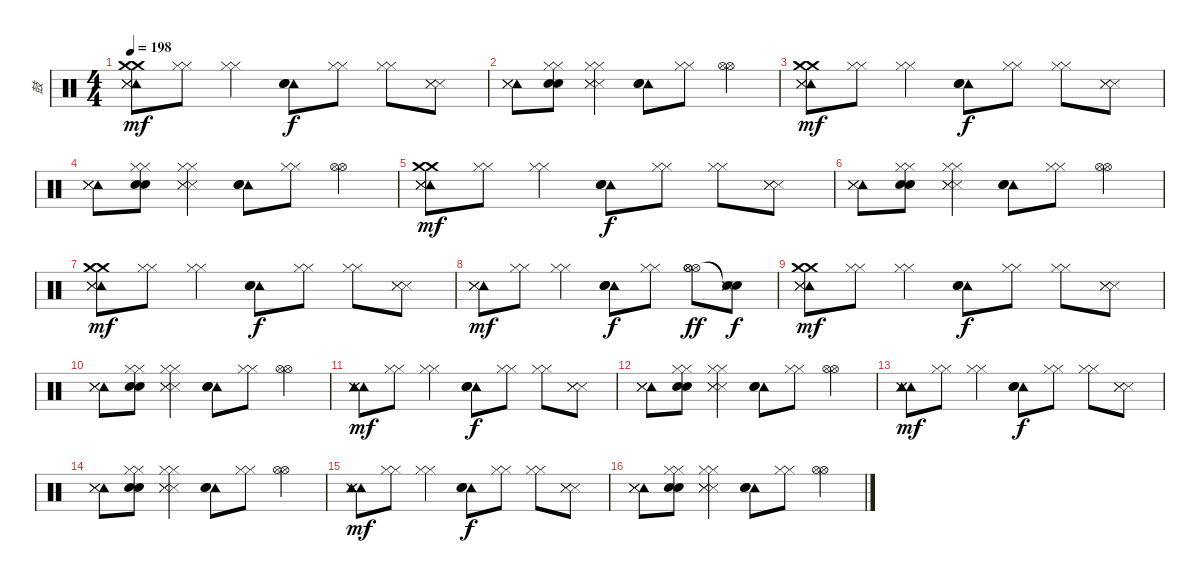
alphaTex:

\track ("鼓" "鼓") {instrument percussion}
\staff {score}
\articulation defaults
\ts (4 4)
\tempo 198
\clef neutral
\ks c
("Tambourine (hit)" "Crash medium (hit)" "Metronome (hit)" "Metronome (hit)" "Metronome (hit)" "Crash medium (hit)").8{dy mf} ("Hi-Hat (closed)" "Hi-Hat (closed)").8 ("Hi-Hat (closed)" "Hi-Hat (closed)").4 ("Tambourine (hit)" "Metronome (bell)" "Metronome (bell)").8{dy f} ("Hi-Hat (closed)" "Hi-Hat (closed)").8 ("Hi-Hat (closed)" "Hi-Hat (closed)").8 ("Metronome (hit)" "Metronome (hit)" "Metronome (hit)").8 |
("Tambourine (hit)" "Metronome (hit)" "Metronome (hit)" "Metronome (hit)").8 ("Hi-Hat (closed)" "Hi-Hat (closed)" "Metronome (bell)" "Metronome (bell)").8 ("Hi-Hat (closed)" "Hi-Hat (closed)" "Metronome (hit)" "Metronome (hit)" "Metronome (hit)").4 ("Tambourine (hit)" "Metronome (bell)" "Metronome (bell)").8 ("Hi-Hat (closed)" "Hi-Hat (closed)").8 ("Hi-Hat (open)" "Hi-Hat (open)").4 |
("Tambourine (hit)" "Crash medium (hit)" "Metronome (hit)" "Metronome (hit)" "Metronome (hit)" "Crash medium (hit)").8{dy mf} ("Hi-Hat (closed)" "Hi-Hat (closed)").8 ("Hi-Hat (closed)" "Hi-Hat (closed)").4 ("Tambourine (hit)" "Metronome (bell)" "Metronome (bell)").8{dy f} ("Hi-Hat (closed)" "Hi-Hat (closed)").8 ("Hi-Hat (closed)" "Hi-Hat (closed)").8 ("Metronome (hit)" "Metronome (hit)" "Metronome (hit)").8 |
("Tambourine (hit)" "Metronome (hit)" "Metronome (hit)" "Metronome (hit)").8 ("Hi-Hat (closed)" "Hi-Hat (closed)" "Metronome (bell)" "Metronome (bell)").8 ("Hi-Hat (closed)" "Hi-Hat (closed)" "Metronome (hit)" "Metronome (hit)" "Metronome (hit)").4 ("Tambourine (hit)" "Metronome (bell)" "Metronome (bell)").8 ("Hi-Hat (closed)" "Hi-Hat (closed)").8 ("Hi-Hat (open)" "Hi-Hat (open)").4 |
("Tambourine (hit)" "Crash medium (hit)" "Metronome (hit)" "Metronome (hit)" "Metronome (hit)" "Crash medium (hit)").8{dy mf} ("Hi-Hat (closed)" "Hi-Hat (closed)").8 ("Hi-Hat (closed)" "Hi-Hat (closed)").4 ("Tambourine (hit)" "Metronome (bell)" "Metronome (bell)").8{dy f} ("Hi-Hat (closed)" "Hi-Hat (closed)").8 ("Hi-Hat (closed)" "Hi-Hat (closed)").8 ("Metronome (hit)" "Metronome (hit)" "Metronome (hit)").8 |
("Tambourine (hit)" "Metronome (hit)" "Metronome (hit)" "Metronome (hit)").8 ("Hi-Hat (closed)" "Hi-Hat (closed)" "Metronome (bell)" "Metronome (bell)").8 ("Hi-Hat (closed)" "Hi-Hat (closed)" "Metronome (hit)" "Metronome (hit)" "Metronome (hit)").4 ("Tambourine (hit)" "Metronome (bell)" "Metronome (bell)").8 ("Hi-Hat (closed)" "Hi-Hat (closed)").8 ("Hi-Hat (open)" "Hi-Hat (open)").4 |
("Tambourine (hit)" "Crash medium (hit)" "Metronome (hit)" "Metronome (hit)" "Metronome (hit)" "Crash medium (hit)").8{dy mf} ("Hi-Hat (closed)" "Hi-Hat (closed)").8 ("Hi-Hat (closed)" "Hi-Hat (closed)").4 ("Tambourine (hit)" "Metronome (bell)" "Metronome (bell)").8{dy f} ("Hi-Hat (closed)" "Hi-Hat (closed)").8 ("Hi-Hat (closed)" "Hi-Hat (closed)").8 ("Metronome (hit)" "Metronome (hit)" "Metronome (hit)").8 |
("Tambourine (hit)" "Metronome (hit)" "Metronome (hit)" "Metronome (hit)").8{dy mf} ("Hi-Hat (closed)" "Hi-Hat (closed)").8 ("Hi-Hat (closed)" "Hi-Hat (closed)").4 ("Tambourine (hit)" "Metronome (bell)" "Metronome (bell)").8{dy f} ("Hi-Hat (closed)" "Hi-Hat (closed)").8 ("Hi-Hat (open)" "Hi-Hat (open)" "Hi-Hat (open)").8{dy ff} ("Snare (hit)"{t} "Snare (hit)"{t} "Metronome (hit)" "Metronome (hit)" "Metronome (hit)").8{dy f} |
("Tambourine (hit)" "Crash medium (hit)" "Metronome (hit)" "Metronome (hit)" "Metronome (hit)" "Crash medium (hit)").8{dy mf} ("Hi-Hat (closed)" "Hi-Hat (closed)").8 ("Hi-Hat (closed)" "Hi-Hat (closed)").4 ("Tambourine (hit)" "Metronome (bell)" "Metronome (bell)").8{dy f} ("Hi-Hat (closed)" "Hi-Hat (closed)").8 ("Hi-Hat (closed)" "Hi-Hat (closed)").8 ("Metronome (hit)" "Metronome (hit)" "Metronome (hit)").8 |
("Tambourine (hit)" "Metronome (hit)" "Metronome (hit)" "Metronome (hit)").8 ("Hi-Hat (closed)" "Hi-Hat (closed)" "Metronome (bell)" "Metronome (bell)").8 ("Hi-Hat (closed)" "Hi-Hat (closed)" "Metronome (hit)" "Metronome (hit)" "Metronome (hit)").4 ("Tambourine (hit)" "Metronome (bell)" "Metronome (bell)").8 ("Hi-Hat (closed)" "Hi-Hat (closed)").8 ("Hi-Hat (open)" "Hi-Hat (open)").4 |
("Tambourine (hit)" "Tambourine (hit)" "Metronome (hit)" "Metronome (hit)" "Metronome (hit)").8{dy mf} ("Hi-Hat (closed)" "Hi-Hat (closed)").8 ("Hi-Hat (closed)" "Hi-Hat (closed)").4 ("Tambourine (hit)" "Metronome (bell)" "Metronome (bell)").8{dy f} ("Hi-Hat (closed)" "Hi-Hat (closed)").8 ("Hi-Hat (closed)" "Hi-Hat (closed)").8 ("Metronome (hit)" "Metronome (hit)" "Metronome (hit)").8 |
("Tambourine (hit)" "Metronome (hit)" "Metronome (hit)" "Metronome (hit)").8 ("Hi-Hat (closed)" "Hi-Hat (closed)" "Metronome (bell)" "Metronome (bell)").8 ("Hi-Hat (closed)" "Hi-Hat (closed)" "Metronome (hit)" "Metronome (hit)" "Metronome (hit)").4 ("Tambourine (hit)" "Metronome (bell)" "Metronome (bell)").8 ("Hi-Hat (closed)" "Hi-Hat (closed)").8 ("Hi-Hat (open)" "Hi-Hat (open)").4 |
("Tambourine (hit)" "Tambourine (hit)" "Metronome (hit)" "Metronome (hit)" "Metronome (hit)").8{dy mf} ("Hi-Hat (closed)" "Hi-Hat (closed)").8 ("Hi-Hat (closed)" "Hi-Hat (closed)").4 ("Tambourine (hit)" "Metronome (bell)" "Metronome (bell)").8{dy f} ("Hi-Hat (closed)" "Hi-Hat (closed)").8 ("Hi-Hat (closed)" "Hi-Hat (closed)").8 ("Metronome (hit)" "Metronome (hit)" "Metronome (hit)").8 |
("Tambourine (hit)" "Metronome (hit)" "Metronome (hit)" "Metronome (hit)").8 ("Hi-Hat (closed)" "Hi-Hat (closed)" "Metronome (bell)" "Metronome (bell)").8 ("Hi-Hat (closed)" "Hi-Hat (closed)" "Metronome (hit)" "Metronome (hit)" "Metronome (hit)").4 ("Tambourine (hit)" "Metronome (bell)" "Metronome (bell)").8 ("Hi-Hat (closed)" "Hi-Hat (closed)").8 ("Hi-Hat (open)" "Hi-Hat (open)").4 |
("Tambourine (hit)" "Tambourine (hit)" "Metronome (hit)" "Metronome (hit)" "Metronome (hit)").8{dy mf} ("Hi-Hat (closed)" "Hi-Hat (closed)").8 ("Hi-Hat (closed)" "Hi-Hat (closed)").4 ("Tambourine (hit)" "Metronome (bell)" "Metronome (bell)").8{dy f} ("Hi-Hat (closed)" "Hi-Hat (closed)").8 ("Hi-Hat (closed)" "Hi-Hat (closed)").8 ("Metronome (hit)" "Metronome (hit)" "Metronome (hit)").8 |
("Tambourine (hit)" "Metronome (hit)" "Metronome (hit)" "Metronome (hit)").8 ("Hi-Hat (closed)" "Hi-Hat (closed)" "Metronome (bell)" "Metronome (bell)").8 ("Hi-Hat (closed)" "Hi-Hat (closed)" "Metronome (hit)" "Metronome (hit)" "Metronome (hit)").4 ("Tambourine (hit)" "Metronome (bell)" "Metronome (bell)").8 ("Hi-Hat (closed)" "Hi-Hat (closed)").8 ("Hi-Hat (open)" "Hi-Hat (open)").4
